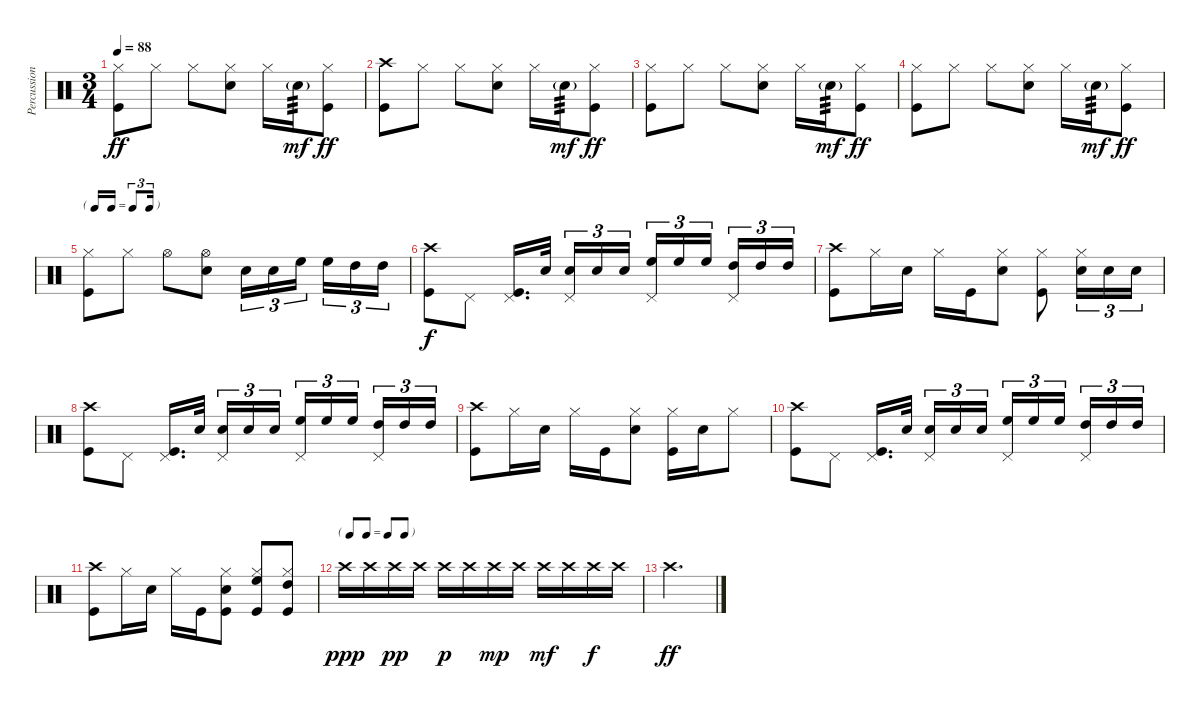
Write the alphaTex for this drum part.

\track ("Percussion" "Percussion") {instrument percussion}
\staff {score}
\articulation defaults
\ts (3 4)
\tempo 88
\clef neutral
\ks c
("Kick (hit)" "Hi-Hat (closed)").8{dy ff} "Hi-Hat (closed)".8 "Hi-Hat (closed)".8 ("Snare (hit) 2" "Hi-Hat (closed)").8 "Hi-Hat (closed)".16 "Snare (hit) 2"{g}.16{tp 3 dy mf} ("Hi-Hat (closed)" "Kick (hit)").8{dy ff} |
("Kick (hit)" "Crash high (hit)").8 "Hi-Hat (closed)".8 "Hi-Hat (closed)".8 ("Snare (hit) 2" "Hi-Hat (closed)").8 "Hi-Hat (closed)".16 "Snare (hit) 2"{g}.16{tp 3 dy mf} ("Hi-Hat (closed)" "Kick (hit)").8{dy ff} |
("Kick (hit)" "Hi-Hat (closed)").8 "Hi-Hat (closed)".8 "Hi-Hat (closed)".8 ("Snare (hit) 2" "Hi-Hat (closed)").8 "Hi-Hat (closed)".16 "Snare (hit) 2"{g}.16{tp 3 dy mf} ("Hi-Hat (closed)" "Kick (hit)").8{dy ff} |
("Kick (hit)" "Hi-Hat (closed)").8 "Hi-Hat (closed)".8 "Hi-Hat (closed)".8 ("Snare (hit) 2" "Hi-Hat (closed)").8 "Hi-Hat (closed)".16 "Snare (hit) 2"{g}.16{tp 3 dy mf} ("Hi-Hat (closed)" "Kick (hit)").8{dy ff} |
\tf triplet16th
("Kick (hit)" "Hi-Hat (closed)").8 "Hi-Hat (closed)".8 "Hi-Hat (open)".8 ("Snare (hit) 2" "Hi-Hat (open)").8 "Snare (hit) 2".16{tu (3 2)} "Snare (hit) 2".16{tu (3 2)} "High Floor Tom (hit)".16{tu (3 2) beam splitsecondary} "High Floor Tom (hit)".16{tu (3 2)} "High Tom (hit)".16{tu (3 2)} "High Tom (hit)".16{tu (3 2)} |
("Kick (hit)" "Crash high (hit)").8{dy f} "Pedal Hi-Hat (hit)".8 ("Pedal Hi-Hat (hit)" "Kick (hit)").16{d} "Snare (hit) 2".32{beam splitsecondary} ("Snare (hit) 2" "Pedal Hi-Hat (hit)").16{tu (3 2)} "Snare (hit) 2".16{tu (3 2)} "Snare (hit) 2".16{tu (3 2)} ("High Floor Tom (hit)" "Pedal Hi-Hat (hit)").16{tu (3 2)} "High Floor Tom (hit)".16{tu (3 2)} "High Floor Tom (hit)".16{tu (3 2) beam splitsecondary} ("High Tom (hit)" "Pedal Hi-Hat (hit)").16{tu (3 2)} "High Tom (hit)".16{tu (3 2)} "High Tom (hit)".16{tu (3 2)} |
("Kick (hit)" "Crash high (hit)").8 "Hi-Hat (closed)".16 "Snare (hit) 2".16 "Hi-Hat (closed)".16 "Kick (hit)".16 ("Snare (hit) 2" "Hi-Hat (closed)").8 ("Hi-Hat (closed)" "Kick (hit)").8 ("Snare (hit) 2" "Hi-Hat (closed)").16{tu (3 2)} "Snare (hit) 2".16{tu (3 2)} "Snare (hit) 2".16{tu (3 2)} |
("Kick (hit)" "Crash high (hit)").8 "Pedal Hi-Hat (hit)".8 ("Pedal Hi-Hat (hit)" "Kick (hit)").16{d} "Snare (hit) 2".32{beam splitsecondary} ("Snare (hit) 2" "Pedal Hi-Hat (hit)").16{tu (3 2)} "Snare (hit) 2".16{tu (3 2)} "Snare (hit) 2".16{tu (3 2)} ("High Floor Tom (hit)" "Pedal Hi-Hat (hit)").16{tu (3 2)} "High Floor Tom (hit)".16{tu (3 2)} "High Floor Tom (hit)".16{tu (3 2) beam splitsecondary} ("High Tom (hit)" "Pedal Hi-Hat (hit)").16{tu (3 2)} "High Tom (hit)".16{tu (3 2)} "High Tom (hit)".16{tu (3 2)} |
("Kick (hit)" "Crash high (hit)").8 "Hi-Hat (closed)".16 "Snare (hit) 2".16 "Hi-Hat (closed)".16 "Kick (hit)".16 ("Snare (hit) 2" "Hi-Hat (closed)").8 ("Hi-Hat (closed)" "Kick (hit)").16 "Snare (hit) 2".16 "Hi-Hat (closed)".8 |
("Kick (hit)" "Crash high (hit)").8 "Pedal Hi-Hat (hit)".8 ("Pedal Hi-Hat (hit)" "Kick (hit)").16{d} "Snare (hit) 2".32{beam splitsecondary} ("Snare (hit) 2" "Pedal Hi-Hat (hit)").16{tu (3 2)} "Snare (hit) 2".16{tu (3 2)} "Snare (hit) 2".16{tu (3 2)} ("High Floor Tom (hit)" "Pedal Hi-Hat (hit)").16{tu (3 2)} "High Floor Tom (hit)".16{tu (3 2)} "High Floor Tom (hit)".16{tu (3 2) beam splitsecondary} ("High Tom (hit)" "Pedal Hi-Hat (hit)").16{tu (3 2)} "High Tom (hit)".16{tu (3 2)} "High Tom (hit)".16{tu (3 2)} |
("Kick (hit)" "Crash high (hit)").8 "Hi-Hat (closed)".16 "Snare (hit) 2".16 "Hi-Hat (closed)".16 "Kick (hit)".16 ("Snare (hit) 2" "Hi-Hat (closed)" "Kick (hit)").8 ("Hi-Hat (closed)" "Kick (hit)" "High Floor Tom (hit)").8 ("Kick (hit)" "High Tom (hit)" "Hi-Hat (closed)").8 |
\tf none "Crash high (hit)".16{dy ppp} "Crash high (hit)".16 "Crash high (hit)".16{dy pp} "Crash high (hit)".16 "Crash high (hit)".16{dy p} "Crash high (hit)".16 "Crash high (hit)".16{dy mp} "Crash high (hit)".16 "Crash high (hit)".16{dy mf} "Crash high (hit)".16 "Crash high (hit)".16{dy f} "Crash high (hit)".16
|
"Crash high (hit)".2{d dy ff}
